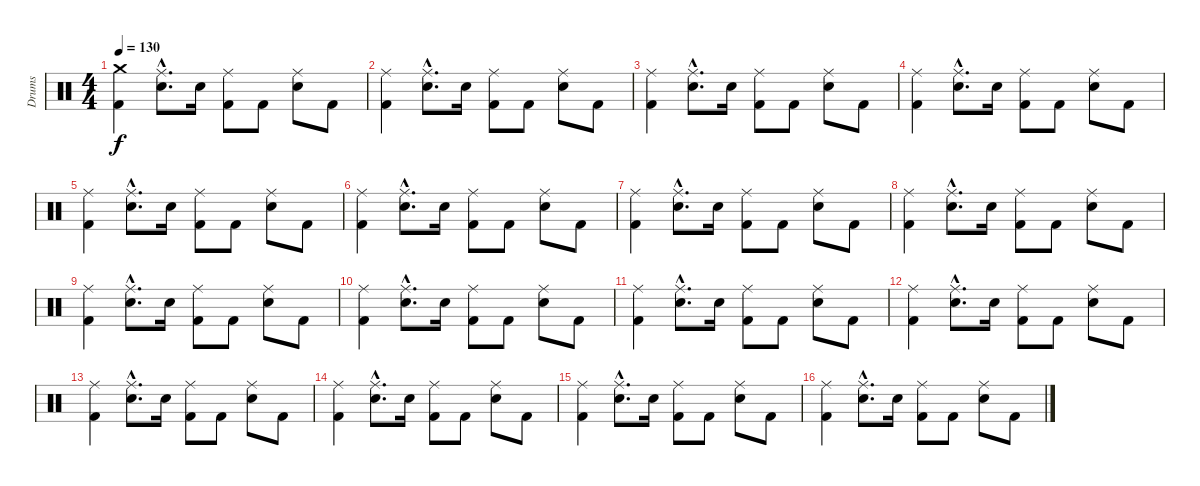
\track ("Drums" "Drums") {instrument percussion}
\staff {score}
\articulation defaults
\ts (4 4)
\tempo 130
\clef neutral
\ks c
("Crash medium (hit)" "Kick (hit) 2").4{dy f} ("Ride (middle)"{hac} "Snare (hit) 2"{hac}).8{d} "Snare (hit) 2".16 ("Ride (middle)" "Kick (hit) 2").8 "Kick (hit) 2".8 ("Ride (middle)" "Snare (hit) 2").8 "Kick (hit) 2".8 |
("Ride (middle)" "Kick (hit) 2").4 ("Ride (middle)"{hac} "Snare (hit) 2"{hac}).8{d} "Snare (hit) 2".16 ("Ride (middle)" "Kick (hit) 2").8 "Kick (hit) 2".8 ("Ride (middle)" "Snare (hit) 2").8 "Kick (hit) 2".8 |
("Ride (middle)" "Kick (hit) 2").4 ("Ride (middle)"{hac} "Snare (hit) 2"{hac}).8{d} "Snare (hit) 2".16 ("Ride (middle)" "Kick (hit) 2").8 "Kick (hit) 2".8 ("Ride (middle)" "Snare (hit) 2").8 "Kick (hit) 2".8 |
("Ride (middle)" "Kick (hit) 2").4 ("Ride (middle)"{hac} "Snare (hit) 2"{hac}).8{d} "Snare (hit) 2".16 ("Ride (middle)" "Kick (hit) 2").8 "Kick (hit) 2".8 ("Ride (middle)" "Snare (hit) 2").8 "Kick (hit) 2".8 |
("Ride (middle)" "Kick (hit) 2").4 ("Ride (middle)"{hac} "Snare (hit) 2"{hac}).8{d} "Snare (hit) 2".16 ("Ride (middle)" "Kick (hit) 2").8 "Kick (hit) 2".8 ("Ride (middle)" "Snare (hit) 2").8 "Kick (hit) 2".8 |
("Ride (middle)" "Kick (hit) 2").4 ("Ride (middle)"{hac} "Snare (hit) 2"{hac}).8{d} "Snare (hit) 2".16 ("Ride (middle)" "Kick (hit) 2").8 "Kick (hit) 2".8 ("Ride (middle)" "Snare (hit) 2").8 "Kick (hit) 2".8 |
("Ride (middle)" "Kick (hit) 2").4 ("Ride (middle)"{hac} "Snare (hit) 2"{hac}).8{d} "Snare (hit) 2".16 ("Ride (middle)" "Kick (hit) 2").8 "Kick (hit) 2".8 ("Ride (middle)" "Snare (hit) 2").8 "Kick (hit) 2".8 |
("Ride (middle)" "Kick (hit) 2").4 ("Ride (middle)"{hac} "Snare (hit) 2"{hac}).8{d} "Snare (hit) 2".16 ("Ride (middle)" "Kick (hit) 2").8 "Kick (hit) 2".8 ("Ride (middle)" "Snare (hit) 2").8 "Kick (hit) 2".8 |
("Ride (middle)" "Kick (hit) 2").4 ("Ride (middle)"{hac} "Snare (hit) 2"{hac}).8{d} "Snare (hit) 2".16 ("Ride (middle)" "Kick (hit) 2").8 "Kick (hit) 2".8 ("Ride (middle)" "Snare (hit) 2").8 "Kick (hit) 2".8 |
("Ride (middle)" "Kick (hit) 2").4 ("Ride (middle)"{hac} "Snare (hit) 2"{hac}).8{d} "Snare (hit) 2".16 ("Ride (middle)" "Kick (hit) 2").8 "Kick (hit) 2".8 ("Ride (middle)" "Snare (hit) 2").8 "Kick (hit) 2".8 |
("Ride (middle)" "Kick (hit) 2").4 ("Ride (middle)"{hac} "Snare (hit) 2"{hac}).8{d} "Snare (hit) 2".16 ("Ride (middle)" "Kick (hit) 2").8 "Kick (hit) 2".8 ("Ride (middle)" "Snare (hit) 2").8 "Kick (hit) 2".8 |
("Ride (middle)" "Kick (hit) 2").4 ("Ride (middle)"{hac} "Snare (hit) 2"{hac}).8{d} "Snare (hit) 2".16 ("Ride (middle)" "Kick (hit) 2").8 "Kick (hit) 2".8 ("Ride (middle)" "Snare (hit) 2").8 "Kick (hit) 2".8 |
("Ride (middle)" "Kick (hit) 2").4 ("Ride (middle)"{hac} "Snare (hit) 2"{hac}).8{d} "Snare (hit) 2".16 ("Ride (middle)" "Kick (hit) 2").8 "Kick (hit) 2".8 ("Ride (middle)" "Snare (hit) 2").8 "Kick (hit) 2".8 |
("Ride (middle)" "Kick (hit) 2").4 ("Ride (middle)"{hac} "Snare (hit) 2"{hac}).8{d} "Snare (hit) 2".16 ("Ride (middle)" "Kick (hit) 2").8 "Kick (hit) 2".8 ("Ride (middle)" "Snare (hit) 2").8 "Kick (hit) 2".8 |
("Ride (middle)" "Kick (hit) 2").4 ("Ride (middle)"{hac} "Snare (hit) 2"{hac}).8{d} "Snare (hit) 2".16 ("Ride (middle)" "Kick (hit) 2").8 "Kick (hit) 2".8 ("Ride (middle)" "Snare (hit) 2").8 "Kick (hit) 2".8 |
("Ride (middle)" "Kick (hit) 2").4 ("Ride (middle)"{hac} "Snare (hit) 2"{hac}).8{d} "Snare (hit) 2".16 ("Ride (middle)" "Kick (hit) 2").8 "Kick (hit) 2".8 ("Ride (middle)" "Snare (hit) 2").8 "Kick (hit) 2".8
